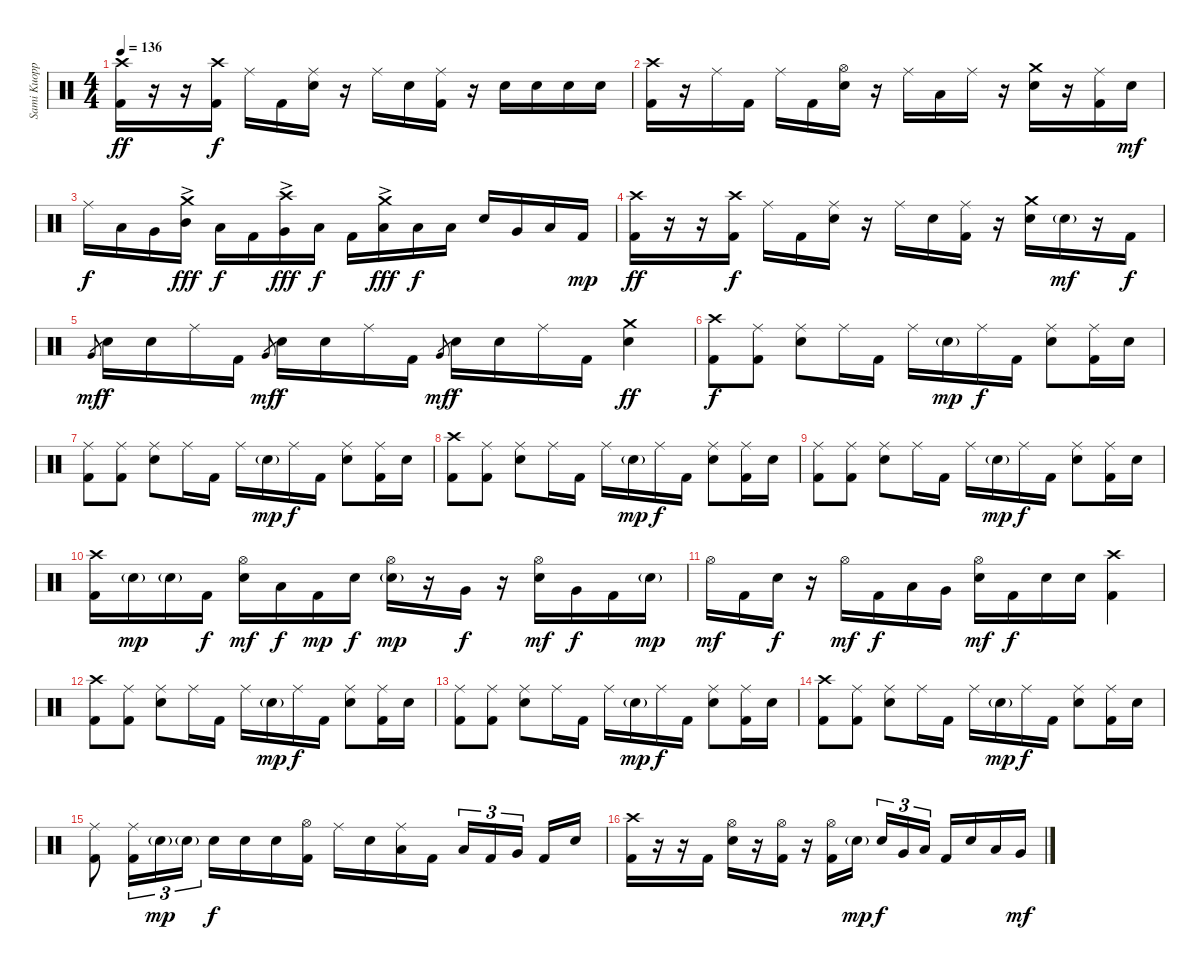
\track ("Sami Kuoppamäki - Drums" "Sami Kuopp") {instrument percussion}
\staff {score}
\articulation defaults
\ts (4 4)
\tempo 136
\clef neutral
\ks c
("Crash high (hit)" "Kick (hit) 2").16{dy ff} r.16 r.16 ("Crash high (hit)" "Kick (hit) 2").16{dy f} "Ride (middle)".16 "Kick (hit) 2".16 ("Ride (middle)" "Snare (hit) 2").16 r.16 "Ride (middle)".16 "Snare (hit) 2".16 ("Ride (middle)" "Kick (hit) 2").16 r.16 "Snare (hit) 2".16 "Snare (hit) 2".16 "Snare (hit) 2".16 "Snare (hit) 2".16 |
("Crash high (hit)" "Kick (hit) 2").16 r.16 "Ride (middle)".16 "Kick (hit) 2".16 "Ride (middle)".16 "Kick (hit) 2".16 ("Hi-Hat (open)" "Snare (hit) 2").16 r.16 "Ride (middle)".16 "Low Tom (hit)".16 "Ride (middle)".16 r.16 ("Crash medium (hit)" "Snare (hit) 2").16 r.16 ("Ride (middle)" "Kick (hit) 2").16 "Snare (hit) 2".16{dy mf} |
"Ride (middle)".16{dy f} "Low Tom (hit)".16 "Very Low Tom (hit)".16 ("Crash medium (hit)" "Mid Tom (hit)"{ac}).16{dy fff} "Low Tom (hit)".16{dy f} "Kick (hit) 2".16 ("Crash high (hit)" "Very Low Tom (hit)"{ac}).16{dy fff} "Low Floor Tom (hit)".16{dy f} "Kick (hit) 2".16 ("Crash medium (hit)" "Low Floor Tom (hit)"{ac}).16{dy fff} "Low Floor Tom (hit)".16{dy f} "Low Floor Tom (hit)".16 "Snare (hit) 2".16 "Very Low Tom (hit)".16 "Low Floor Tom (hit)".16 "Kick (hit) 2".16{dy mp} |
("Crash high (hit)" "Kick (hit) 2").16{dy ff} r.16 r.16 ("Crash high (hit)" "Kick (hit) 2").16{dy f} "Ride (middle)".16 "Kick (hit) 2".16 ("Ride (middle)" "Snare (hit) 2").16 r.16 "Ride (middle)".16 "Snare (hit) 2".16 ("Ride (middle)" "Kick (hit) 2").16 r.16 ("Crash medium (hit)" "Snare (hit) 2").16 "Snare (hit) 2"{g}.16{dy mf} r.16 "Kick (hit) 2".16{dy f} |
"Very Low Tom (hit)".8{gr dy mf} "Snare (hit) 2".16{dy f} "Snare (hit) 2".16 "Ride (middle)".16 "Kick (hit) 2".16 "Very Low Tom (hit)".8{gr dy mf} "Snare (hit) 2".16{dy f} "Snare (hit) 2".16 "Ride (middle)".16 "Kick (hit) 2".16 "Very Low Tom (hit)".8{gr dy mf} "Snare (hit) 2".16{dy f} "Snare (hit) 2".16 "Ride (middle)".16 "Kick (hit) 2".16 ("Crash medium (hit)" "Snare (hit) 2").4{dy ff} |
("Crash high (hit)" "Kick (hit) 2").8{dy f} ("Ride (middle)" "Kick (hit) 2").8 ("Ride (middle)" "Snare (hit) 2").8 "Ride (middle)".16 "Kick (hit) 2".16 "Ride (middle)".16 "Snare (hit) 2"{g}.16{dy mp} "Ride (middle)".16{dy f} "Kick (hit) 2".16 ("Ride (middle)" "Snare (hit) 2").8 ("Ride (middle)" "Kick (hit) 2").16 "Snare (hit) 2".16 |
("Ride (middle)" "Kick (hit) 2").8 ("Ride (middle)" "Kick (hit) 2").8 ("Ride (middle)" "Snare (hit) 2").8 "Ride (middle)".16 "Kick (hit) 2".16 "Ride (middle)".16 "Snare (hit) 2"{g}.16{dy mp} "Ride (middle)".16{dy f} "Kick (hit) 2".16 ("Ride (middle)" "Snare (hit) 2").8 ("Ride (middle)" "Kick (hit) 2").16 "Snare (hit) 2".16 |
("Crash high (hit)" "Kick (hit) 2").8 ("Ride (middle)" "Kick (hit) 2").8 ("Ride (middle)" "Snare (hit) 2").8 "Ride (middle)".16 "Kick (hit) 2".16 "Ride (middle)".16 "Snare (hit) 2"{g}.16{dy mp} "Ride (middle)".16{dy f} "Kick (hit) 2".16 ("Ride (middle)" "Snare (hit) 2").8 ("Ride (middle)" "Kick (hit) 2").16 "Snare (hit) 2".16 |
("Ride (middle)" "Kick (hit) 2").8 ("Ride (middle)" "Kick (hit) 2").8 ("Ride (middle)" "Snare (hit) 2").8 "Ride (middle)".16 "Kick (hit) 2".16 "Ride (middle)".16 "Snare (hit) 2"{g}.16{dy mp} "Ride (middle)".16{dy f} "Kick (hit) 2".16 ("Ride (middle)" "Snare (hit) 2").8 ("Ride (middle)" "Kick (hit) 2").16 "Snare (hit) 2".16 |
("Crash high (hit)" "Kick (hit) 2").16 "Snare (hit) 2"{g}.16{dy mp} "Snare (hit) 2"{g}.16 "Kick (hit) 2".16{dy f} ("Hi-Hat (open)" "Snare (hit) 2").16{dy mf} "Low Tom (hit)".16{dy f} "Kick (hit) 2".16{dy mp} "Snare (hit) 2".16{dy f} ("Hi-Hat (open)" "Snare (hit) 2"{g}).16{dy mp} r.16 "Very Low Tom (hit)".16{dy f} r.16 ("Hi-Hat (open)" "Snare (hit) 2").16{dy mf} "Very Low Tom (hit)".16{dy f} "Kick (hit) 2".16 "Snare (hit) 2"{g}.16{dy mp} |
"Hi-Hat (open)".16{dy mf} "Kick (hit) 2".16 "Snare (hit) 2".16{dy f} r.16 "Hi-Hat (open)".16{dy mf} "Kick (hit) 2".16{dy f} "Low Tom (hit)".16 "Very Low Tom (hit)".16 ("Hi-Hat (open)" "Snare (hit) 2").16{dy mf} "Kick (hit) 2".16{dy f} "Snare (hit) 2".16 "Snare (hit) 2".16 ("Crash high (hit)" "Kick (hit) 2").4 |
("Crash high (hit)" "Kick (hit) 2").8 ("Ride (middle)" "Kick (hit) 2").8 ("Ride (middle)" "Snare (hit) 2").8 "Ride (middle)".16 "Kick (hit) 2".16 "Ride (middle)".16 "Snare (hit) 2"{g}.16{dy mp} "Ride (middle)".16{dy f} "Kick (hit) 2".16 ("Ride (middle)" "Snare (hit) 2").8 ("Ride (middle)" "Kick (hit) 2").16 "Snare (hit) 2".16 |
("Ride (middle)" "Kick (hit) 2").8 ("Ride (middle)" "Kick (hit) 2").8 ("Ride (middle)" "Snare (hit) 2").8 "Ride (middle)".16 "Kick (hit) 2".16 "Ride (middle)".16 "Snare (hit) 2"{g}.16{dy mp} "Ride (middle)".16{dy f} "Kick (hit) 2".16 ("Ride (middle)" "Snare (hit) 2").8 ("Ride (middle)" "Kick (hit) 2").16 "Snare (hit) 2".16 |
("Crash high (hit)" "Kick (hit) 2").8 ("Ride (middle)" "Kick (hit) 2").8 ("Ride (middle)" "Snare (hit) 2").8 "Ride (middle)".16 "Kick (hit) 2".16 "Ride (middle)".16 "Snare (hit) 2"{g}.16{dy mp} "Ride (middle)".16{dy f} "Kick (hit) 2".16 ("Ride (middle)" "Snare (hit) 2").8 ("Ride (middle)" "Kick (hit) 2").16 "Snare (hit) 2".16 |
("Ride (middle)" "Kick (hit) 2").8 ("Ride (middle)" "Kick (hit) 2").16{tu (3 2)} "Snare (hit) 2"{g}.16{tu (3 2) dy mp} "Snare (hit) 2"{g}.16{tu (3 2)} "Snare (hit) 2".16{dy f} "Snare (hit) 2".16 "Snare (hit) 2".16 ("Hi-Hat (open)" "Kick (hit) 2").16 "Ride (middle)".16 "Snare (hit) 2".16 ("Ride (middle)" "Low Tom (hit)").16 "Kick (hit) 2".16 "Low Tom (hit)".16{tu (3 2)} "Kick (hit) 2".16{tu (3 2)} "Very Low Tom (hit)".16{tu (3 2)} "Kick (hit) 2".16 "Snare (hit) 2".16 |
("Crash high (hit)" "Kick (hit) 2").16 r.16 r.16 "Kick (hit) 2".16 ("Hi-Hat (open)" "Snare (hit) 2").16 r.16 ("Hi-Hat (open)" "Kick (hit) 2").16 r.16 ("Hi-Hat (open)" "Kick (hit) 2").16 "Snare (hit) 2"{g}.16{dy mp} "Snare (hit) 2".16{tu (3 2) dy f} "Very Low Tom (hit)".16{tu (3 2)} "Low Floor Tom (hit)".16{tu (3 2)} "Kick (hit) 2".16 "Snare (hit) 2".16 "Low Tom (hit)".16 "Very Low Tom (hit)".16{dy mf}
